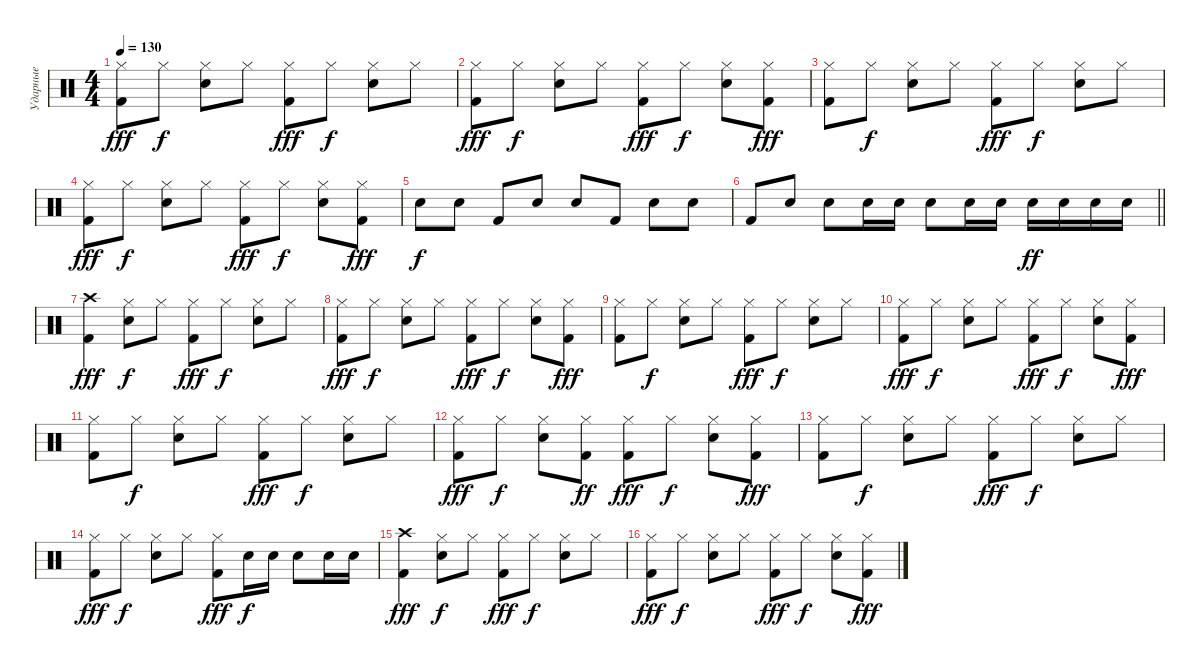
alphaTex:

\track ("Ударные" "Ударные") {instrument percussion}
\staff {score}
\articulation defaults
\ts (4 4)
\tempo 130
\clef neutral
\ks c
("Kick (hit) 2" "Hi-Hat (closed)").8{dy fff} "Hi-Hat (closed)".8{dy f} ("Snare (hit) 2" "Hi-Hat (closed)").8 "Hi-Hat (closed)".8 ("Kick (hit) 2" "Hi-Hat (closed)").8{dy fff} "Hi-Hat (closed)".8{dy f} ("Snare (hit) 2" "Hi-Hat (closed)").8 "Hi-Hat (closed)".8 |
("Kick (hit) 2" "Hi-Hat (closed)").8{dy fff} "Hi-Hat (closed)".8{dy f} ("Snare (hit) 2" "Hi-Hat (closed)").8 "Hi-Hat (closed)".8 ("Kick (hit) 2" "Hi-Hat (closed)").8{dy fff} "Hi-Hat (closed)".8{dy f} ("Snare (hit) 2" "Hi-Hat (closed)").8 ("Kick (hit) 2" "Hi-Hat (closed)").8{dy fff} |
("Kick (hit) 2" "Hi-Hat (closed)").8 "Hi-Hat (closed)".8{dy f} ("Snare (hit) 2" "Hi-Hat (closed)").8 "Hi-Hat (closed)".8 ("Kick (hit) 2" "Hi-Hat (closed)").8{dy fff} "Hi-Hat (closed)".8{dy f} ("Snare (hit) 2" "Hi-Hat (closed)").8 "Hi-Hat (closed)".8 |
("Kick (hit) 2" "Hi-Hat (closed)").8{dy fff} "Hi-Hat (closed)".8{dy f} ("Snare (hit) 2" "Hi-Hat (closed)").8 "Hi-Hat (closed)".8 ("Kick (hit) 2" "Hi-Hat (closed)").8{dy fff} "Hi-Hat (closed)".8{dy f} ("Snare (hit) 2" "Hi-Hat (closed)").8 ("Kick (hit) 2" "Hi-Hat (closed)").8{dy fff} |
"Snare (hit) 2".8{dy f} "Snare (hit) 2".8 "Kick (hit) 2".8 "Snare (hit) 2".8 "Snare (hit) 2".8 "Kick (hit) 2".8 "Snare (hit) 2".8 "Snare (hit) 2".8 |
\barLineRight lightlight "Kick (hit) 2".8 "Snare (hit) 2".8 "Snare (hit) 2".8 "Snare (hit) 2".16 "Snare (hit) 2".16 "Snare (hit) 2".8 "Snare (hit) 2".16 "Snare (hit) 2".16 "Electric Snare (hit)".16{dy ff} "Electric Snare (hit)".16 "Electric Snare (hit)".16 "Electric Snare (hit)".16
|
("Kick (hit) 2" "Crash high (hit)").4{dy fff} ("Snare (hit) 2" "Hi-Hat (closed)").8{dy f} "Hi-Hat (closed)".8 ("Kick (hit) 2" "Hi-Hat (closed)").8{dy fff} "Hi-Hat (closed)".8{dy f} ("Snare (hit) 2" "Hi-Hat (closed)").8 "Hi-Hat (closed)".8 |
("Kick (hit) 2" "Hi-Hat (closed)").8{dy fff} "Hi-Hat (closed)".8{dy f} ("Snare (hit) 2" "Hi-Hat (closed)").8 "Hi-Hat (closed)".8 ("Kick (hit) 2" "Hi-Hat (closed)").8{dy fff} "Hi-Hat (closed)".8{dy f} ("Snare (hit) 2" "Hi-Hat (closed)").8 ("Kick (hit) 2" "Hi-Hat (closed)").8{dy fff} |
("Kick (hit) 2" "Hi-Hat (closed)").8 "Hi-Hat (closed)".8{dy f} ("Snare (hit) 2" "Hi-Hat (closed)").8 "Hi-Hat (closed)".8 ("Kick (hit) 2" "Hi-Hat (closed)").8{dy fff} "Hi-Hat (closed)".8{dy f} ("Snare (hit) 2" "Hi-Hat (closed)").8 "Hi-Hat (closed)".8 |
("Kick (hit) 2" "Hi-Hat (closed)").8{dy fff} "Hi-Hat (closed)".8{dy f} ("Snare (hit) 2" "Hi-Hat (closed)").8 "Hi-Hat (closed)".8 ("Kick (hit) 2" "Hi-Hat (closed)").8{dy fff} "Hi-Hat (closed)".8{dy f} ("Snare (hit) 2" "Hi-Hat (closed)").8 ("Kick (hit) 2" "Hi-Hat (closed)").8{dy fff} |
("Kick (hit) 2" "Hi-Hat (closed)").8 "Hi-Hat (closed)".8{dy f} ("Snare (hit) 2" "Hi-Hat (closed)").8 "Hi-Hat (closed)".8 ("Kick (hit) 2" "Hi-Hat (closed)").8{dy fff} "Hi-Hat (closed)".8{dy f} ("Snare (hit) 2" "Hi-Hat (closed)").8 "Hi-Hat (closed)".8 |
("Kick (hit) 2" "Hi-Hat (closed)").8{dy fff} "Hi-Hat (closed)".8{dy f} ("Snare (hit) 2" "Hi-Hat (closed)").8 ("Kick (hit) 2" "Hi-Hat (closed)").8{dy ff} ("Kick (hit) 2" "Hi-Hat (closed)").8{dy fff} "Hi-Hat (closed)".8{dy f} ("Snare (hit) 2" "Hi-Hat (closed)").8 ("Kick (hit) 2" "Hi-Hat (closed)").8{dy fff} |
("Kick (hit) 2" "Hi-Hat (closed)").8 "Hi-Hat (closed)".8{dy f} ("Snare (hit) 2" "Hi-Hat (closed)").8 "Hi-Hat (closed)".8 ("Kick (hit) 2" "Hi-Hat (closed)").8{dy fff} "Hi-Hat (closed)".8{dy f} ("Snare (hit) 2" "Hi-Hat (closed)").8 "Hi-Hat (closed)".8 |
("Kick (hit) 2" "Hi-Hat (closed)").8{dy fff} "Hi-Hat (closed)".8{dy f} ("Snare (hit) 2" "Hi-Hat (closed)").8 "Hi-Hat (closed)".8 ("Kick (hit) 2" "Hi-Hat (closed)").8{dy fff} "Snare (hit) 2".16{dy f} "Snare (hit) 2".16 "Snare (hit) 2".8 "Snare (hit) 2".16 "Snare (hit) 2".16 |
("Kick (hit) 2" "Crash high (hit)").4{dy fff} ("Snare (hit) 2" "Hi-Hat (closed)").8{dy f} "Hi-Hat (closed)".8 ("Kick (hit) 2" "Hi-Hat (closed)").8{dy fff} "Hi-Hat (closed)".8{dy f} ("Snare (hit) 2" "Hi-Hat (closed)").8 "Hi-Hat (closed)".8 |
("Kick (hit) 2" "Hi-Hat (closed)").8{dy fff} "Hi-Hat (closed)".8{dy f} ("Snare (hit) 2" "Hi-Hat (closed)").8 "Hi-Hat (closed)".8 ("Kick (hit) 2" "Hi-Hat (closed)").8{dy fff} "Hi-Hat (closed)".8{dy f} ("Snare (hit) 2" "Hi-Hat (closed)").8 ("Kick (hit) 2" "Hi-Hat (closed)").8{dy fff}
